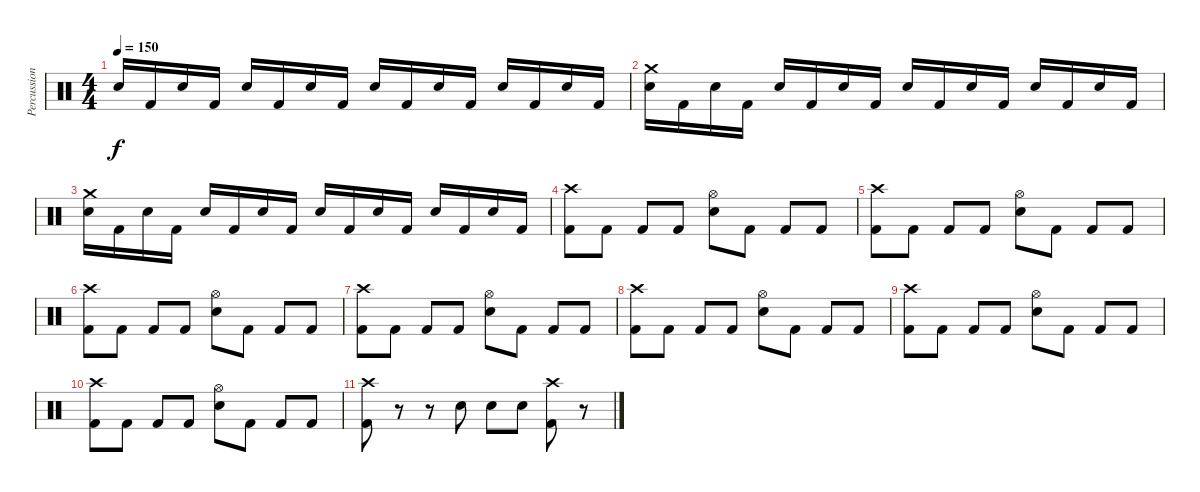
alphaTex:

\track ("Percussion" "Percussion") {instrument percussion}
\staff {score}
\articulation defaults
\ts (4 4)
\tempo 150
\clef neutral
\ks c "Snare (hit) 2".16{dy f} "Kick (hit) 2".16 "Snare (hit) 2".16 "Kick (hit) 2".16 "Snare (hit) 2".16 "Kick (hit) 2".16 "Snare (hit) 2".16 "Kick (hit) 2".16 "Snare (hit) 2".16 "Kick (hit) 2".16 "Snare (hit) 2".16 "Kick (hit) 2".16 "Snare (hit) 2".16 "Kick (hit) 2".16 "Snare (hit) 2".16 "Kick (hit) 2".16
|
("Crash medium (hit)" "Snare (hit) 2").16 "Kick (hit) 2".16 "Snare (hit) 2".16 "Kick (hit) 2".16 "Snare (hit) 2".16 "Kick (hit) 2".16 "Snare (hit) 2".16 "Kick (hit) 2".16 "Snare (hit) 2".16 "Kick (hit) 2".16 "Snare (hit) 2".16 "Kick (hit) 2".16 "Snare (hit) 2".16 "Kick (hit) 2".16 "Snare (hit) 2".16 "Kick (hit) 2".16 |
("Crash medium (hit)" "Snare (hit) 2").16 "Kick (hit) 2".16 "Snare (hit) 2".16 "Kick (hit) 2".16 "Snare (hit) 2".16 "Kick (hit) 2".16 "Snare (hit) 2".16 "Kick (hit) 2".16 "Snare (hit) 2".16 "Kick (hit) 2".16 "Snare (hit) 2".16 "Kick (hit) 2".16 "Snare (hit) 2".16 "Kick (hit) 2".16 "Snare (hit) 2".16 "Kick (hit) 2".16 |
("Crash high (hit)" "Kick (hit) 2").8 "Kick (hit) 2".8 "Kick (hit) 2".8 "Kick (hit) 2".8 ("Hi-Hat (open)" "Snare (hit) 2").8 "Kick (hit) 2".8 "Kick (hit) 2".8 "Kick (hit) 2".8 |
("Crash high (hit)" "Kick (hit) 2").8 "Kick (hit) 2".8 "Kick (hit) 2".8 "Kick (hit) 2".8 ("Hi-Hat (open)" "Snare (hit) 2").8 "Kick (hit) 2".8 "Kick (hit) 2".8 "Kick (hit) 2".8 |
("Crash high (hit)" "Kick (hit) 2").8 "Kick (hit) 2".8 "Kick (hit) 2".8 "Kick (hit) 2".8 ("Hi-Hat (open)" "Snare (hit) 2").8 "Kick (hit) 2".8 "Kick (hit) 2".8 "Kick (hit) 2".8 |
("Crash high (hit)" "Kick (hit) 2").8 "Kick (hit) 2".8 "Kick (hit) 2".8 "Kick (hit) 2".8 ("Hi-Hat (open)" "Snare (hit) 2").8 "Kick (hit) 2".8 "Kick (hit) 2".8 "Kick (hit) 2".8 |
("Crash high (hit)" "Kick (hit) 2").8 "Kick (hit) 2".8 "Kick (hit) 2".8 "Kick (hit) 2".8 ("Hi-Hat (open)" "Snare (hit) 2").8 "Kick (hit) 2".8 "Kick (hit) 2".8 "Kick (hit) 2".8 |
("Crash high (hit)" "Kick (hit) 2").8 "Kick (hit) 2".8 "Kick (hit) 2".8 "Kick (hit) 2".8 ("Hi-Hat (open)" "Snare (hit) 2").8 "Kick (hit) 2".8 "Kick (hit) 2".8 "Kick (hit) 2".8 |
("Crash high (hit)" "Kick (hit) 2").8 "Kick (hit) 2".8 "Kick (hit) 2".8 "Kick (hit) 2".8 ("Hi-Hat (open)" "Snare (hit) 2").8 "Kick (hit) 2".8 "Kick (hit) 2".8 "Kick (hit) 2".8 |
("Crash high (hit)" "Kick (hit) 2").8 r.8 r.8 "Snare (hit) 2".8 "Snare (hit) 2".8 "Snare (hit) 2".8 ("Crash high (hit)" "Kick (hit) 2").8 r.8
